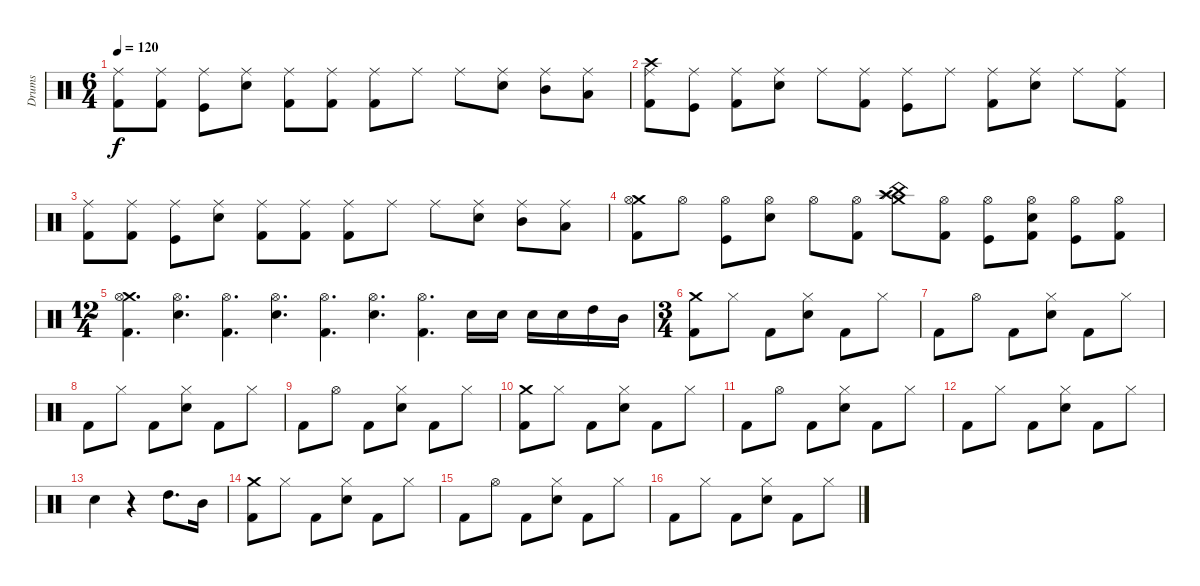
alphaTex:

\track ("Drums" "Drums") {instrument percussion}
\staff {score}
\articulation defaults
\ts (6 4)
\tempo 120
\clef neutral
\ks c
("Ride (middle)" "Kick (hit) 2").8{dy f} ("Ride (middle)" "Kick (hit) 2").8 ("Ride (middle)" "Kick (hit)").8 ("Ride (middle)" "Electric Snare (hit)").8 ("Ride (middle)" "Kick (hit) 2").8 ("Ride (middle)" "Kick (hit) 2").8 ("Ride (middle)" "Kick (hit) 2").8 "Ride (middle)".8 "Ride (middle)".8 ("Ride (middle)" "Electric Snare (hit)").8 ("Ride (middle)" "Mid Tom (hit)").8 ("Ride (middle)" "Low Tom (hit)").8 |
("Crash high (hit)" "Ride (middle)" "Kick (hit) 2").8 ("Ride (middle)" "Kick (hit)").8 ("Ride (middle)" "Kick (hit) 2").8 ("Ride (middle)" "Electric Snare (hit)").8 "Ride (middle)".8 ("Ride (middle)" "Kick (hit) 2").8 ("Ride (middle)" "Kick (hit)").8 "Ride (middle)".8 ("Ride (middle)" "Kick (hit) 2").8 ("Ride (middle)" "Electric Snare (hit)").8 "Ride (middle)".8 ("Ride (middle)" "Kick (hit) 2").8 |
("Ride (middle)" "Kick (hit) 2").8 ("Ride (middle)" "Kick (hit) 2").8 ("Ride (middle)" "Kick (hit)").8 ("Ride (middle)" "Electric Snare (hit)").8 ("Ride (middle)" "Kick (hit) 2").8 ("Ride (middle)" "Kick (hit) 2").8 ("Ride (middle)" "Kick (hit) 2").8 "Ride (middle)".8 "Ride (middle)".8 ("Ride (middle)" "Electric Snare (hit)").8 ("Ride (middle)" "Mid Tom (hit)").8 ("Ride (middle)" "Low Tom (hit)").8 |
("Crash medium (hit)" "Hi-Hat (open)" "Kick (hit) 2").8 "Hi-Hat (open)".8 ("Hi-Hat (open)" "Kick (hit)").8 ("Hi-Hat (open)" "Electric Snare (hit)").8 "Hi-Hat (open)".8 ("Hi-Hat (open)" "Kick (hit) 2").8 ("Splash (hit)" "China (hit)" "Crash medium (hit)" "Crash high (hit)").8 ("Hi-Hat (open)" "Kick (hit) 2").8 ("Hi-Hat (open)" "Kick (hit)").8 ("Hi-Hat (open)" "Electric Snare (hit)" "Kick (hit) 2").8 ("Hi-Hat (open)" "Kick (hit)").8 ("Hi-Hat (open)" "Kick (hit) 2").8 |
\ts (12 4)
("Crash medium (hit)" "Hi-Hat (open)" "Kick (hit) 2").4{d} ("Hi-Hat (open)" "Electric Snare (hit)").4{d} ("Hi-Hat (open)" "Kick (hit) 2").4{d} ("Hi-Hat (open)" "Electric Snare (hit)").4{d} ("Hi-Hat (open)" "Kick (hit) 2").4{d} ("Hi-Hat (open)" "Electric Snare (hit)").4{d} ("Hi-Hat (open)" "Kick (hit) 2").4{d} "Electric Snare (hit)".16 "Electric Snare (hit)".16 "Electric Snare (hit)".16 "Electric Snare (hit)".16 "High Tom (hit)".16 "Mid Tom (hit)".16 |
\ts (3 4)
("Crash medium (hit)" "Kick (hit) 2").8 "Hi-Hat (closed)".8 "Kick (hit) 2".8 ("Hi-Hat (closed)" "Electric Snare (hit)").8 "Kick (hit) 2".8 "Hi-Hat (closed)".8 |
"Kick (hit) 2".8 "Hi-Hat (open)".8 "Kick (hit) 2".8 ("Hi-Hat (closed)" "Electric Snare (hit)").8 "Kick (hit) 2".8 "Hi-Hat (closed)".8 |
"Kick (hit) 2".8 "Hi-Hat (closed)".8 "Kick (hit) 2".8 ("Hi-Hat (closed)" "Electric Snare (hit)").8 "Kick (hit) 2".8 "Hi-Hat (closed)".8 |
"Kick (hit) 2".8 "Hi-Hat (open)".8 "Kick (hit) 2".8 ("Hi-Hat (closed)" "Electric Snare (hit)").8 "Kick (hit) 2".8 "Hi-Hat (closed)".8 |
("Crash medium (hit)" "Kick (hit) 2").8 "Hi-Hat (closed)".8 "Kick (hit) 2".8 ("Hi-Hat (closed)" "Electric Snare (hit)").8 "Kick (hit) 2".8 "Hi-Hat (closed)".8 |
"Kick (hit) 2".8 "Hi-Hat (open)".8 "Kick (hit) 2".8 ("Hi-Hat (closed)" "Electric Snare (hit)").8 "Kick (hit) 2".8 "Hi-Hat (closed)".8 |
"Kick (hit) 2".8 "Hi-Hat (closed)".8 "Kick (hit) 2".8 ("Hi-Hat (closed)" "Electric Snare (hit)").8 "Kick (hit) 2".8 "Hi-Hat (closed)".8 |
"Electric Snare (hit)".4 r.4 "High Tom (hit)".8{d} "Mid Tom (hit)".16 |
("Crash medium (hit)" "Kick (hit) 2").8 "Hi-Hat (closed)".8 "Kick (hit) 2".8 ("Hi-Hat (closed)" "Electric Snare (hit)").8 "Kick (hit) 2".8 "Hi-Hat (closed)".8 |
"Kick (hit) 2".8 "Hi-Hat (open)".8 "Kick (hit) 2".8 ("Hi-Hat (closed)" "Electric Snare (hit)").8 "Kick (hit) 2".8 "Hi-Hat (closed)".8 |
"Kick (hit) 2".8 "Hi-Hat (closed)".8 "Kick (hit) 2".8 ("Hi-Hat (closed)" "Electric Snare (hit)").8 "Kick (hit) 2".8 "Hi-Hat (closed)".8
